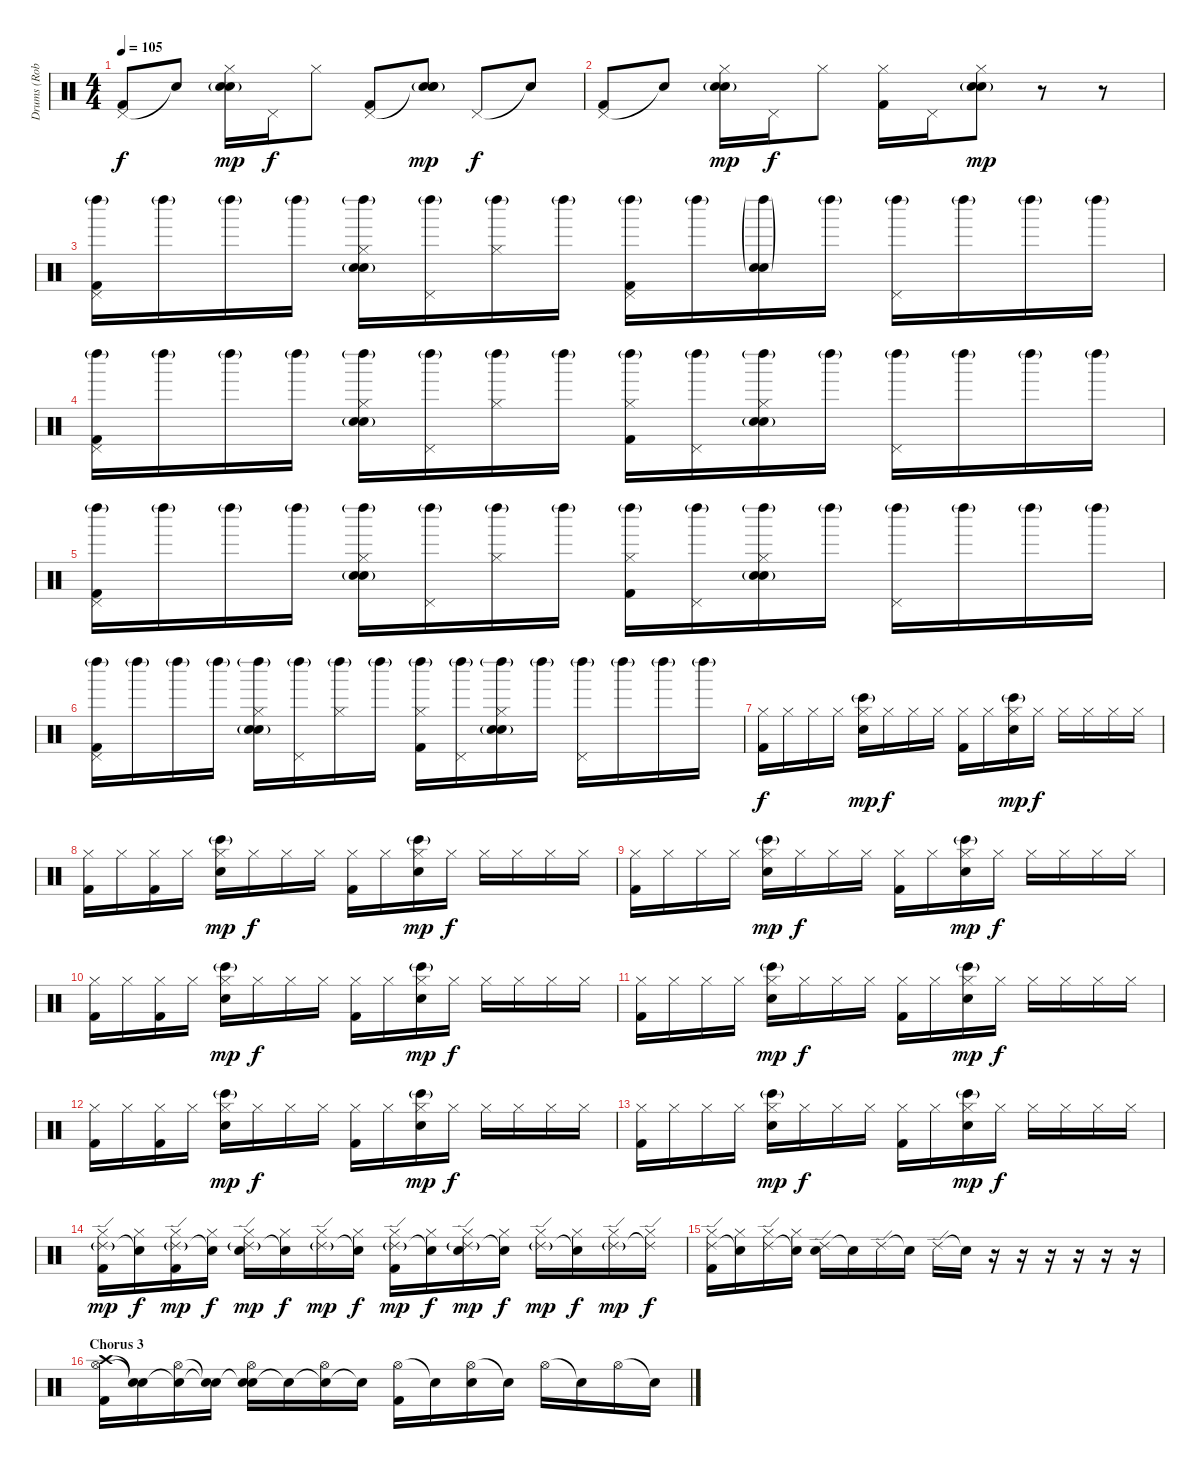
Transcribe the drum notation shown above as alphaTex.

\track ("Drums (Rob Bourdon)" "Drums (Rob") {instrument percussion}
\staff {score}
\articulation defaults
\ts (4 4)
\tempo 105
\clef neutral
\ks c
("Pedal Hi-Hat (hit)" "Kick (hit) 2").8{dy f} "Snare (hit)"{t}.8 ("Hi-Hat (closed)" "Hand Clap (hit)"{g} "Electric Snare (hit)").16{dy mp} "Pedal Hi-Hat (hit)".16{dy f} "Hi-Hat (closed)".8 ("Pedal Hi-Hat (hit)" "Kick (hit) 2").8 ("Snare (hit)"{t} "Hand Clap (hit)"{g} "Electric Snare (hit)").8{dy mp} "Pedal Hi-Hat (hit)".8{dy f} "Snare (hit)"{t}.8 |
("Pedal Hi-Hat (hit)" "Kick (hit) 2").8 "Snare (hit)"{t}.8 ("Hi-Hat (closed)" "Hand Clap (hit)"{g} "Electric Snare (hit)").16{dy mp} "Pedal Hi-Hat (hit)".16{dy f} "Hi-Hat (closed)".8 ("Hi-Hat (closed)" "Kick (hit) 2").16 "Pedal Hi-Hat (hit)".16 ("Hi-Hat (closed)" "Hand Clap (hit)"{g} "Electric Snare (hit)").8{dy mp} r.8 r.8 |
("Left Maraca (hit)"{g} "Pedal Hi-Hat (hit)" "Kick (hit) 2").16 "Left Maraca (hit)"{g}.16 "Left Maraca (hit)"{g}.16 "Left Maraca (hit)"{g}.16 ("Left Maraca (hit)"{g} "Hi-Hat (closed)" "Hand Clap (hit)"{g} "Electric Snare (hit)").16 ("Left Maraca (hit)"{g} "Pedal Hi-Hat (hit)").16 ("Left Maraca (hit)"{g} "Hi-Hat (closed)").16 "Left Maraca (hit)"{g}.16 ("Left Maraca (hit)"{g} "Pedal Hi-Hat (hit)" "Kick (hit) 2").16 "Left Maraca (hit)"{g}.16 ("Left Maraca (hit)"{g} "Hand Clap (hit)"{g} "Electric Snare (hit)").16 "Left Maraca (hit)"{g}.16 ("Left Maraca (hit)"{g} "Pedal Hi-Hat (hit)").16 "Left Maraca (hit)"{g}.16 "Left Maraca (hit)"{g}.16 "Left Maraca (hit)"{g}.16 |
("Left Maraca (hit)"{g} "Pedal Hi-Hat (hit)" "Kick (hit) 2").16 "Left Maraca (hit)"{g}.16 "Left Maraca (hit)"{g}.16 "Left Maraca (hit)"{g}.16 ("Left Maraca (hit)"{g} "Hi-Hat (closed)" "Hand Clap (hit)"{g} "Electric Snare (hit)").16 ("Left Maraca (hit)"{g} "Pedal Hi-Hat (hit)").16 ("Left Maraca (hit)"{g} "Hi-Hat (closed)").16 "Left Maraca (hit)"{g}.16 ("Left Maraca (hit)"{g} "Hi-Hat (closed)" "Kick (hit) 2").16 ("Left Maraca (hit)"{g} "Pedal Hi-Hat (hit)").16 ("Left Maraca (hit)"{g} "Hi-Hat (closed)" "Hand Clap (hit)"{g} "Electric Snare (hit)").16 "Left Maraca (hit)"{g}.16 ("Left Maraca (hit)"{g} "Pedal Hi-Hat (hit)").16 "Left Maraca (hit)"{g}.16 "Left Maraca (hit)"{g}.16 "Left Maraca (hit)"{g}.16 |
("Left Maraca (hit)"{g} "Pedal Hi-Hat (hit)" "Kick (hit) 2").16 "Left Maraca (hit)"{g}.16 "Left Maraca (hit)"{g}.16 "Left Maraca (hit)"{g}.16 ("Left Maraca (hit)"{g} "Hi-Hat (closed)" "Hand Clap (hit)"{g} "Electric Snare (hit)").16 ("Left Maraca (hit)"{g} "Pedal Hi-Hat (hit)").16 ("Left Maraca (hit)"{g} "Hi-Hat (closed)").16 "Left Maraca (hit)"{g}.16 ("Left Maraca (hit)"{g} "Hi-Hat (closed)" "Kick (hit) 2").16 ("Left Maraca (hit)"{g} "Pedal Hi-Hat (hit)").16 ("Left Maraca (hit)"{g} "Hi-Hat (closed)" "Hand Clap (hit)"{g} "Electric Snare (hit)").16 "Left Maraca (hit)"{g}.16 ("Left Maraca (hit)"{g} "Pedal Hi-Hat (hit)").16 "Left Maraca (hit)"{g}.16 "Left Maraca (hit)"{g}.16 "Left Maraca (hit)"{g}.16 |
("Left Maraca (hit)"{g} "Pedal Hi-Hat (hit)" "Kick (hit) 2").16 "Left Maraca (hit)"{g}.16 "Left Maraca (hit)"{g}.16 "Left Maraca (hit)"{g}.16 ("Left Maraca (hit)"{g} "Hi-Hat (closed)" "Hand Clap (hit)"{g} "Electric Snare (hit)").16 ("Left Maraca (hit)"{g} "Pedal Hi-Hat (hit)").16 ("Left Maraca (hit)"{g} "Hi-Hat (closed)").16 "Left Maraca (hit)"{g}.16 ("Left Maraca (hit)"{g} "Hi-Hat (closed)" "Kick (hit) 2").16 ("Left Maraca (hit)"{g} "Pedal Hi-Hat (hit)").16 ("Left Maraca (hit)"{g} "Hi-Hat (closed)" "Hand Clap (hit)"{g} "Electric Snare (hit)").16 "Left Maraca (hit)"{g}.16 ("Left Maraca (hit)"{g} "Pedal Hi-Hat (hit)").16 "Left Maraca (hit)"{g}.16 "Left Maraca (hit)"{g}.16 "Left Maraca (hit)"{g}.16 |
("Hi-Hat (closed)" "Kick (hit) 2").16{dy f} "Hi-Hat (closed)".16 "Hi-Hat (closed)".16 "Hi-Hat (closed)".16 ("Hi-Hat (closed)" "Bongo High (hit)"{g} "Electric Snare (hit)").16{dy mp} "Hi-Hat (closed)".16{dy f} "Hi-Hat (closed)".16 "Hi-Hat (closed)".16 ("Hi-Hat (closed)" "Kick (hit) 2").16 "Hi-Hat (closed)".16 ("Hi-Hat (closed)" "Bongo High (hit)"{g} "Electric Snare (hit)").16{dy mp} "Hi-Hat (closed)".16{dy f} "Hi-Hat (closed)".16 "Hi-Hat (closed)".16 "Hi-Hat (closed)".16 "Hi-Hat (closed)".16 |
("Hi-Hat (closed)" "Kick (hit) 2").16 "Hi-Hat (closed)".16 ("Hi-Hat (closed)" "Kick (hit) 2").16 "Hi-Hat (closed)".16 ("Hi-Hat (closed)" "Bongo High (hit)"{g} "Electric Snare (hit)").16{dy mp} "Hi-Hat (closed)".16{dy f} "Hi-Hat (closed)".16 "Hi-Hat (closed)".16 ("Hi-Hat (closed)" "Kick (hit) 2").16 "Hi-Hat (closed)".16 ("Hi-Hat (closed)" "Bongo High (hit)"{g} "Electric Snare (hit)").16{dy mp} "Hi-Hat (closed)".16{dy f} "Hi-Hat (closed)".16 "Hi-Hat (closed)".16 "Hi-Hat (closed)".16 "Hi-Hat (closed)".16 |
("Hi-Hat (closed)" "Kick (hit) 2").16 "Hi-Hat (closed)".16 "Hi-Hat (closed)".16 "Hi-Hat (closed)".16 ("Hi-Hat (closed)" "Bongo High (hit)"{g} "Electric Snare (hit)").16{dy mp} "Hi-Hat (closed)".16{dy f} "Hi-Hat (closed)".16 "Hi-Hat (closed)".16 ("Hi-Hat (closed)" "Kick (hit) 2").16 "Hi-Hat (closed)".16 ("Hi-Hat (closed)" "Bongo High (hit)"{g} "Electric Snare (hit)").16{dy mp} "Hi-Hat (closed)".16{dy f} "Hi-Hat (closed)".16 "Hi-Hat (closed)".16 "Hi-Hat (closed)".16 "Hi-Hat (closed)".16 |
("Hi-Hat (closed)" "Kick (hit) 2").16 "Hi-Hat (closed)".16 ("Hi-Hat (closed)" "Kick (hit) 2").16 "Hi-Hat (closed)".16 ("Hi-Hat (closed)" "Bongo High (hit)"{g} "Electric Snare (hit)").16{dy mp} "Hi-Hat (closed)".16{dy f} "Hi-Hat (closed)".16 "Hi-Hat (closed)".16 ("Hi-Hat (closed)" "Kick (hit) 2").16 "Hi-Hat (closed)".16 ("Hi-Hat (closed)" "Bongo High (hit)"{g} "Electric Snare (hit)").16{dy mp} "Hi-Hat (closed)".16{dy f} "Hi-Hat (closed)".16 "Hi-Hat (closed)".16 "Hi-Hat (closed)".16 "Hi-Hat (closed)".16 |
("Hi-Hat (closed)" "Kick (hit) 2").16 "Hi-Hat (closed)".16 "Hi-Hat (closed)".16 "Hi-Hat (closed)".16 ("Hi-Hat (closed)" "Bongo High (hit)"{g} "Electric Snare (hit)").16{dy mp} "Hi-Hat (closed)".16{dy f} "Hi-Hat (closed)".16 "Hi-Hat (closed)".16 ("Hi-Hat (closed)" "Kick (hit) 2").16 "Hi-Hat (closed)".16 ("Hi-Hat (closed)" "Bongo High (hit)"{g} "Electric Snare (hit)").16{dy mp} "Hi-Hat (closed)".16{dy f} "Hi-Hat (closed)".16 "Hi-Hat (closed)".16 "Hi-Hat (closed)".16 "Hi-Hat (closed)".16 |
("Hi-Hat (closed)" "Kick (hit) 2").16 "Hi-Hat (closed)".16 ("Hi-Hat (closed)" "Kick (hit) 2").16 "Hi-Hat (closed)".16 ("Hi-Hat (closed)" "Bongo High (hit)"{g} "Electric Snare (hit)").16{dy mp} "Hi-Hat (closed)".16{dy f} "Hi-Hat (closed)".16 "Hi-Hat (closed)".16 ("Hi-Hat (closed)" "Kick (hit) 2").16 "Hi-Hat (closed)".16 ("Hi-Hat (closed)" "Bongo High (hit)"{g} "Electric Snare (hit)").16{dy mp} "Hi-Hat (closed)".16{dy f} "Hi-Hat (closed)".16 "Hi-Hat (closed)".16 "Hi-Hat (closed)".16 "Hi-Hat (closed)".16 |
("Hi-Hat (closed)" "Kick (hit) 2").16 "Hi-Hat (closed)".16 "Hi-Hat (closed)".16 "Hi-Hat (closed)".16 ("Hi-Hat (closed)" "Bongo High (hit)"{g} "Electric Snare (hit)").16{dy mp} "Hi-Hat (closed)".16{dy f} "Hi-Hat (closed)".16 "Hi-Hat (closed)".16 ("Hi-Hat (closed)" "Kick (hit) 2").16 "Hi-Hat (closed)".16 ("Hi-Hat (closed)" "Bongo High (hit)"{g} "Electric Snare (hit)").16{dy mp} "Hi-Hat (closed)".16{dy f} "Hi-Hat (closed)".16 "Hi-Hat (closed)".16 "Hi-Hat (closed)".16 "Hi-Hat (closed)".16 |
("Hi-Hat (closed)" "Ride (edge) 2"{g} "Kick (hit) 2").16{dy mp} ("Hi-Hat (closed)" "Snare (hit)"{t}).16{dy f} ("Hi-Hat (closed)" "Ride (edge) 2"{g} "Kick (hit) 2").16{dy mp} ("Hi-Hat (closed)" "Snare (hit)"{t}).16{dy f} ("Hi-Hat (closed)" "Ride (edge) 2"{g} "Electric Snare (hit)").16{dy mp} ("Hi-Hat (closed)" "Snare (hit)"{t}).16{dy f} ("Hi-Hat (closed)" "Ride (edge) 2"{g}).16{dy mp} ("Hi-Hat (closed)" "Snare (hit)"{t}).16{dy f} ("Hi-Hat (closed)" "Ride (edge) 2"{g} "Kick (hit) 2").16{dy mp} ("Hi-Hat (closed)" "Snare (hit)"{t}).16{dy f} ("Hi-Hat (closed)" "Ride (edge) 2"{g} "Electric Snare (hit)").16{dy mp} ("Hi-Hat (closed)" "Snare (hit)"{t}).16{dy f} ("Hi-Hat (closed)" "Ride (edge) 2"{g}).16{dy mp} ("Hi-Hat (closed)" "Snare (hit)"{t}).16{dy f} ("Hi-Hat (closed)" "Ride (edge) 2"{g}).16{dy mp} ("Hi-Hat (closed)" "Ride (edge) 2"{t}).16{dy f} |
("Hi-Hat (closed)" "Ride (edge) 2" "Kick (hit) 2").16 ("Hi-Hat (closed)" "Snare (hit)"{t}).16 ("Hi-Hat (closed)" "Ride (edge) 2").16 ("Hi-Hat (closed)" "Snare (hit)"{t}).16 ("Ride (edge) 2" "Electric Snare (hit)").16 "Snare (hit)"{t}.16 "Ride (edge) 2".16 "Snare (hit)"{t}.16 "Ride (edge) 2".16 "Snare (hit)"{t}.16 r.16 r.16 r.16 r.16 r.16 r.16 |
\section ("" "Chorus 3")
("Crash high (hit)" "Hi-Hat (open)" "Kick (hit) 2").16{volume 13} ("Snare (hit)"{t} "Snare (hit)"{t}).16 ("Snare (hit)"{t} "Hi-Hat (open)").16 ("Snare (hit)"{t} "Snare (hit)"{t}).16 ("Snare (hit)"{t} "Hi-Hat (open)" "Electric Snare (hit)").16 "Snare (hit)"{t}.16 ("Snare (hit)"{t} "Hi-Hat (open)").16 "Snare (hit)"{t}.16 ("Hi-Hat (open)" "Kick (hit) 2").16 "Snare (hit)"{t}.16 ("Hi-Hat (open)" "Electric Snare (hit)").16 "Snare (hit)"{t}.16 "Hi-Hat (open)".16 "Snare (hit)"{t}.16 "Hi-Hat (open)".16 "Snare (hit)"{t}.16
